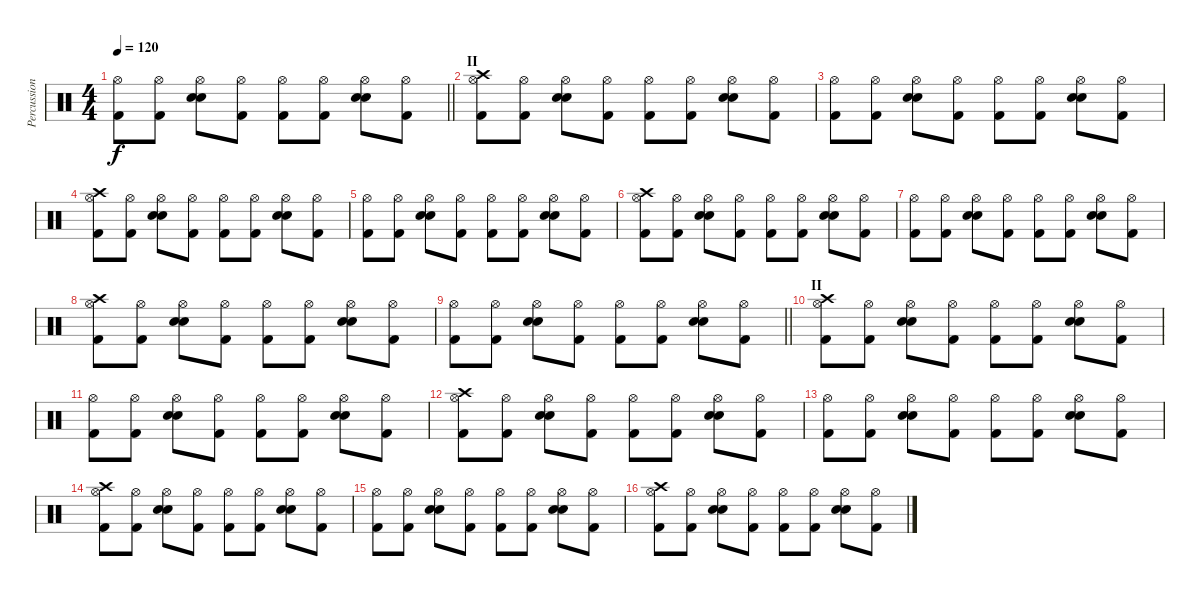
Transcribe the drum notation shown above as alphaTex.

\track ("Percussion" "Percussion") {instrument percussion}
\staff {score}
\articulation defaults
\ts (4 4)
\tempo 120
\clef neutral
\barLineRight lightlight
\ks c
("Kick (hit) 2" "Hi-Hat (open)").8{dy f} ("Kick (hit) 2" "Hi-Hat (open)").8 ("Electric Snare (hit)" "Snare (hit) 2" "Hi-Hat (open)").8 ("Kick (hit) 2" "Hi-Hat (open)").8 ("Kick (hit) 2" "Hi-Hat (open)").8 ("Kick (hit) 2" "Hi-Hat (open)").8 ("Electric Snare (hit)" "Snare (hit) 2" "Hi-Hat (open)").8 ("Kick (hit) 2" "Hi-Hat (open)").8 |
\section ("" "II")
("Crash high (hit)" "Kick (hit) 2" "Hi-Hat (open)").8 ("Kick (hit) 2" "Hi-Hat (open)").8 ("Electric Snare (hit)" "Snare (hit) 2" "Hi-Hat (open)").8 ("Kick (hit) 2" "Hi-Hat (open)").8 ("Kick (hit) 2" "Hi-Hat (open)").8 ("Kick (hit) 2" "Hi-Hat (open)").8 ("Electric Snare (hit)" "Snare (hit) 2" "Hi-Hat (open)").8 ("Kick (hit) 2" "Hi-Hat (open)").8 |
("Kick (hit) 2" "Hi-Hat (open)").8 ("Kick (hit) 2" "Hi-Hat (open)").8 ("Electric Snare (hit)" "Snare (hit) 2" "Hi-Hat (open)").8 ("Kick (hit) 2" "Hi-Hat (open)").8 ("Kick (hit) 2" "Hi-Hat (open)").8 ("Kick (hit) 2" "Hi-Hat (open)").8 ("Electric Snare (hit)" "Snare (hit) 2" "Hi-Hat (open)").8 ("Kick (hit) 2" "Hi-Hat (open)").8 |
("Crash high (hit)" "Kick (hit) 2" "Hi-Hat (open)").8 ("Kick (hit) 2" "Hi-Hat (open)").8 ("Electric Snare (hit)" "Snare (hit) 2" "Hi-Hat (open)").8 ("Kick (hit) 2" "Hi-Hat (open)").8 ("Kick (hit) 2" "Hi-Hat (open)").8 ("Kick (hit) 2" "Hi-Hat (open)").8 ("Electric Snare (hit)" "Snare (hit) 2" "Hi-Hat (open)").8 ("Kick (hit) 2" "Hi-Hat (open)").8 |
("Kick (hit) 2" "Hi-Hat (open)").8 ("Kick (hit) 2" "Hi-Hat (open)").8 ("Electric Snare (hit)" "Snare (hit) 2" "Hi-Hat (open)").8 ("Kick (hit) 2" "Hi-Hat (open)").8 ("Kick (hit) 2" "Hi-Hat (open)").8 ("Kick (hit) 2" "Hi-Hat (open)").8 ("Electric Snare (hit)" "Snare (hit) 2" "Hi-Hat (open)").8 ("Kick (hit) 2" "Hi-Hat (open)").8 |
("Crash high (hit)" "Kick (hit) 2" "Hi-Hat (open)").8 ("Kick (hit) 2" "Hi-Hat (open)").8 ("Electric Snare (hit)" "Snare (hit) 2" "Hi-Hat (open)").8 ("Kick (hit) 2" "Hi-Hat (open)").8 ("Kick (hit) 2" "Hi-Hat (open)").8 ("Kick (hit) 2" "Hi-Hat (open)").8 ("Electric Snare (hit)" "Snare (hit) 2" "Hi-Hat (open)").8 ("Kick (hit) 2" "Hi-Hat (open)").8 |
("Kick (hit) 2" "Hi-Hat (open)").8 ("Kick (hit) 2" "Hi-Hat (open)").8 ("Electric Snare (hit)" "Snare (hit) 2" "Hi-Hat (open)").8 ("Kick (hit) 2" "Hi-Hat (open)").8 ("Kick (hit) 2" "Hi-Hat (open)").8 ("Kick (hit) 2" "Hi-Hat (open)").8 ("Electric Snare (hit)" "Snare (hit) 2" "Hi-Hat (open)").8 ("Kick (hit) 2" "Hi-Hat (open)").8 |
("Crash high (hit)" "Kick (hit) 2" "Hi-Hat (open)").8 ("Kick (hit) 2" "Hi-Hat (open)").8 ("Electric Snare (hit)" "Snare (hit) 2" "Hi-Hat (open)").8 ("Kick (hit) 2" "Hi-Hat (open)").8 ("Kick (hit) 2" "Hi-Hat (open)").8 ("Kick (hit) 2" "Hi-Hat (open)").8 ("Electric Snare (hit)" "Snare (hit) 2" "Hi-Hat (open)").8 ("Kick (hit) 2" "Hi-Hat (open)").8 |
\barLineRight lightlight
("Kick (hit) 2" "Hi-Hat (open)").8 ("Kick (hit) 2" "Hi-Hat (open)").8 ("Electric Snare (hit)" "Snare (hit) 2" "Hi-Hat (open)").8 ("Kick (hit) 2" "Hi-Hat (open)").8 ("Kick (hit) 2" "Hi-Hat (open)").8 ("Kick (hit) 2" "Hi-Hat (open)").8 ("Electric Snare (hit)" "Snare (hit) 2" "Hi-Hat (open)").8 ("Kick (hit) 2" "Hi-Hat (open)").8 |
\section ("" "II")
("Crash high (hit)" "Kick (hit) 2" "Hi-Hat (open)").8 ("Kick (hit) 2" "Hi-Hat (open)").8 ("Electric Snare (hit)" "Snare (hit) 2" "Hi-Hat (open)").8 ("Kick (hit) 2" "Hi-Hat (open)").8 ("Kick (hit) 2" "Hi-Hat (open)").8 ("Kick (hit) 2" "Hi-Hat (open)").8 ("Electric Snare (hit)" "Snare (hit) 2" "Hi-Hat (open)").8 ("Kick (hit) 2" "Hi-Hat (open)").8 |
("Kick (hit) 2" "Hi-Hat (open)").8 ("Kick (hit) 2" "Hi-Hat (open)").8 ("Electric Snare (hit)" "Snare (hit) 2" "Hi-Hat (open)").8 ("Kick (hit) 2" "Hi-Hat (open)").8 ("Kick (hit) 2" "Hi-Hat (open)").8 ("Kick (hit) 2" "Hi-Hat (open)").8 ("Electric Snare (hit)" "Snare (hit) 2" "Hi-Hat (open)").8 ("Kick (hit) 2" "Hi-Hat (open)").8 |
("Crash high (hit)" "Kick (hit) 2" "Hi-Hat (open)").8 ("Kick (hit) 2" "Hi-Hat (open)").8 ("Electric Snare (hit)" "Snare (hit) 2" "Hi-Hat (open)").8 ("Kick (hit) 2" "Hi-Hat (open)").8 ("Kick (hit) 2" "Hi-Hat (open)").8 ("Kick (hit) 2" "Hi-Hat (open)").8 ("Electric Snare (hit)" "Snare (hit) 2" "Hi-Hat (open)").8 ("Kick (hit) 2" "Hi-Hat (open)").8 |
("Kick (hit) 2" "Hi-Hat (open)").8 ("Kick (hit) 2" "Hi-Hat (open)").8 ("Electric Snare (hit)" "Snare (hit) 2" "Hi-Hat (open)").8 ("Kick (hit) 2" "Hi-Hat (open)").8 ("Kick (hit) 2" "Hi-Hat (open)").8 ("Kick (hit) 2" "Hi-Hat (open)").8 ("Electric Snare (hit)" "Snare (hit) 2" "Hi-Hat (open)").8 ("Kick (hit) 2" "Hi-Hat (open)").8 |
("Crash high (hit)" "Kick (hit) 2" "Hi-Hat (open)").8 ("Kick (hit) 2" "Hi-Hat (open)").8 ("Electric Snare (hit)" "Snare (hit) 2" "Hi-Hat (open)").8 ("Kick (hit) 2" "Hi-Hat (open)").8 ("Kick (hit) 2" "Hi-Hat (open)").8 ("Kick (hit) 2" "Hi-Hat (open)").8 ("Electric Snare (hit)" "Snare (hit) 2" "Hi-Hat (open)").8 ("Kick (hit) 2" "Hi-Hat (open)").8 |
("Kick (hit) 2" "Hi-Hat (open)").8 ("Kick (hit) 2" "Hi-Hat (open)").8 ("Electric Snare (hit)" "Snare (hit) 2" "Hi-Hat (open)").8 ("Kick (hit) 2" "Hi-Hat (open)").8 ("Kick (hit) 2" "Hi-Hat (open)").8 ("Kick (hit) 2" "Hi-Hat (open)").8 ("Electric Snare (hit)" "Snare (hit) 2" "Hi-Hat (open)").8 ("Kick (hit) 2" "Hi-Hat (open)").8 |
("Crash high (hit)" "Kick (hit) 2" "Hi-Hat (open)").8 ("Kick (hit) 2" "Hi-Hat (open)").8 ("Electric Snare (hit)" "Snare (hit) 2" "Hi-Hat (open)").8 ("Kick (hit) 2" "Hi-Hat (open)").8 ("Kick (hit) 2" "Hi-Hat (open)").8 ("Kick (hit) 2" "Hi-Hat (open)").8 ("Electric Snare (hit)" "Snare (hit) 2" "Hi-Hat (open)").8 ("Kick (hit) 2" "Hi-Hat (open)").8
